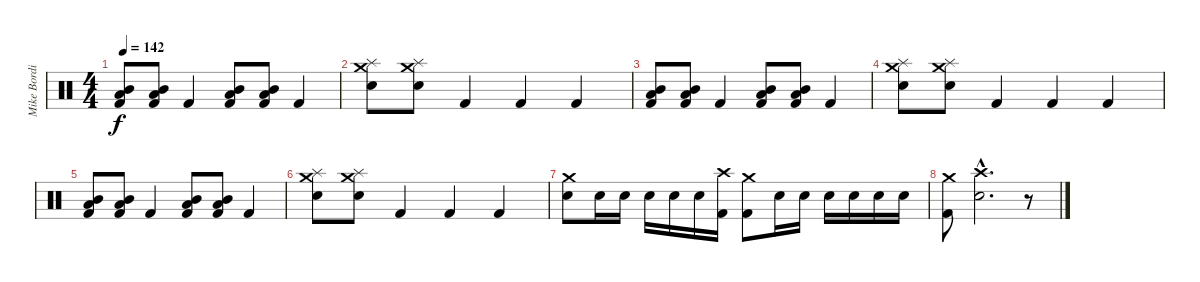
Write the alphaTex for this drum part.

\track ("Mike Bordin" "Mike Bordi") {instrument percussion}
\staff {score}
\articulation defaults
\ts (4 4)
\tempo 142
\clef neutral
\ks c
("Mid Tom (hit)" "Low Tom (hit)" "Kick (hit) 2").8{dy f} ("Mid Tom (hit)" "Low Tom (hit)" "Kick (hit) 2").8 "Kick (hit) 2".4 ("Mid Tom (hit)" "Low Tom (hit)" "Kick (hit) 2").8 ("Mid Tom (hit)" "Low Tom (hit)" "Kick (hit) 2").8 "Kick (hit) 2".4 |
("Crash medium (hit)" "Splash (hit)" "Snare (hit) 2").8 ("Crash medium (hit)" "Splash (hit)" "Snare (hit) 2").8 "Kick (hit) 2".4 "Kick (hit) 2".4 "Kick (hit) 2".4 |
("Mid Tom (hit)" "Low Tom (hit)" "Kick (hit) 2").8 ("Mid Tom (hit)" "Low Tom (hit)" "Kick (hit) 2").8 "Kick (hit) 2".4 ("Mid Tom (hit)" "Low Tom (hit)" "Kick (hit) 2").8 ("Mid Tom (hit)" "Low Tom (hit)" "Kick (hit) 2").8 "Kick (hit) 2".4 |
("Crash medium (hit)" "Splash (hit)" "Snare (hit) 2").8 ("Crash medium (hit)" "Splash (hit)" "Snare (hit) 2").8 "Kick (hit) 2".4 "Kick (hit) 2".4 "Kick (hit) 2".4 |
("Mid Tom (hit)" "Low Tom (hit)" "Kick (hit) 2").8 ("Mid Tom (hit)" "Low Tom (hit)" "Kick (hit) 2").8 "Kick (hit) 2".4 ("Mid Tom (hit)" "Low Tom (hit)" "Kick (hit) 2").8 ("Mid Tom (hit)" "Low Tom (hit)" "Kick (hit) 2").8 "Kick (hit) 2".4 |
("Crash medium (hit)" "Splash (hit)" "Snare (hit) 2").8 ("Crash medium (hit)" "Splash (hit)" "Snare (hit) 2").8 "Kick (hit) 2".4 "Kick (hit) 2".4 "Kick (hit) 2".4 |
("Crash medium (hit)" "Snare (hit) 2").8 "Snare (hit) 2".16 "Snare (hit) 2".16 "Snare (hit) 2".16 "Snare (hit) 2".16 "Snare (hit) 2".16 ("Crash high (hit)" "Kick (hit) 2").16 ("Crash medium (hit)" "Kick (hit) 2").8 "Snare (hit) 2".16 "Snare (hit) 2".16 "Snare (hit) 2".16 "Snare (hit) 2".16 "Snare (hit) 2".16 "Snare (hit) 2".16 |
("Crash medium (hit)" "Kick (hit) 2").8 ("Crash high (hit)"{hac} "Snare (hit) 2"{hac}).2{d} r.8
